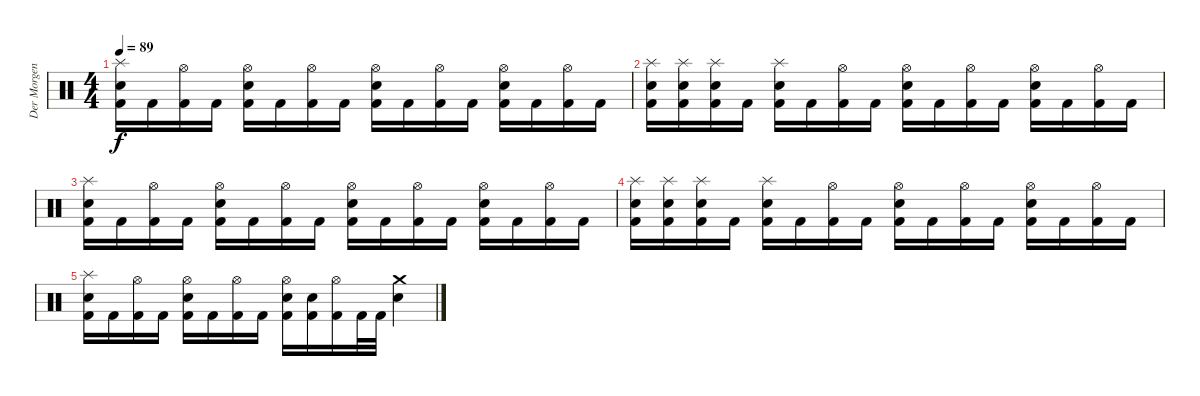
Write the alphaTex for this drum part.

\track ("Der Morgenstern" "Der Morgen") {instrument percussion}
\staff {score}
\articulation defaults
\ts (4 4)
\tempo 89
\clef neutral
\ks c
("Splash (hit)" "Electric Snare (hit)" "Kick (hit) 2").16{dy f} "Kick (hit) 2".16 ("Hi-Hat (open)" "Kick (hit) 2").16 "Kick (hit) 2".16 ("Hi-Hat (open)" "Electric Snare (hit)" "Kick (hit) 2").16 "Kick (hit) 2".16 ("Hi-Hat (open)" "Kick (hit) 2").16 "Kick (hit) 2".16 ("Hi-Hat (open)" "Electric Snare (hit)" "Kick (hit) 2").16 "Kick (hit) 2".16 ("Hi-Hat (open)" "Kick (hit) 2").16 "Kick (hit) 2".16 ("Hi-Hat (open)" "Electric Snare (hit)" "Kick (hit) 2").16 "Kick (hit) 2".16 ("Hi-Hat (open)" "Kick (hit) 2").16 "Kick (hit) 2".16 |
("Splash (hit)" "Electric Snare (hit)" "Kick (hit) 2").16 ("Splash (hit)" "Electric Snare (hit)" "Kick (hit) 2").16 ("Splash (hit)" "Electric Snare (hit)" "Kick (hit) 2").16 "Kick (hit) 2".16 ("Splash (hit)" "Electric Snare (hit)" "Kick (hit) 2").16 "Kick (hit) 2".16 ("Hi-Hat (open)" "Kick (hit) 2").16 "Kick (hit) 2".16 ("Hi-Hat (open)" "Electric Snare (hit)" "Kick (hit) 2").16 "Kick (hit) 2".16 ("Hi-Hat (open)" "Kick (hit) 2").16 "Kick (hit) 2".16 ("Hi-Hat (open)" "Electric Snare (hit)" "Kick (hit) 2").16 "Kick (hit) 2".16 ("Hi-Hat (open)" "Kick (hit) 2").16 "Kick (hit) 2".16 |
("Splash (hit)" "Electric Snare (hit)" "Kick (hit) 2").16 "Kick (hit) 2".16 ("Hi-Hat (open)" "Kick (hit) 2").16 "Kick (hit) 2".16 ("Hi-Hat (open)" "Electric Snare (hit)" "Kick (hit) 2").16 "Kick (hit) 2".16 ("Hi-Hat (open)" "Kick (hit) 2").16 "Kick (hit) 2".16 ("Hi-Hat (open)" "Electric Snare (hit)" "Kick (hit) 2").16 "Kick (hit) 2".16 ("Hi-Hat (open)" "Kick (hit) 2").16 "Kick (hit) 2".16 ("Hi-Hat (open)" "Electric Snare (hit)" "Kick (hit) 2").16 "Kick (hit) 2".16 ("Hi-Hat (open)" "Kick (hit) 2").16 "Kick (hit) 2".16 |
("Splash (hit)" "Electric Snare (hit)" "Kick (hit) 2").16 ("Splash (hit)" "Electric Snare (hit)" "Kick (hit) 2").16 ("Splash (hit)" "Electric Snare (hit)" "Kick (hit) 2").16 "Kick (hit) 2".16 ("Splash (hit)" "Electric Snare (hit)" "Kick (hit) 2").16 "Kick (hit) 2".16 ("Hi-Hat (open)" "Kick (hit) 2").16 "Kick (hit) 2".16 ("Hi-Hat (open)" "Electric Snare (hit)" "Kick (hit) 2").16 "Kick (hit) 2".16 ("Hi-Hat (open)" "Kick (hit) 2").16 "Kick (hit) 2".16 ("Hi-Hat (open)" "Electric Snare (hit)" "Kick (hit) 2").16 "Kick (hit) 2".16 ("Hi-Hat (open)" "Kick (hit) 2").16 "Kick (hit) 2".16 |
("Splash (hit)" "Electric Snare (hit)" "Kick (hit) 2").16 "Kick (hit) 2".16 ("Hi-Hat (open)" "Kick (hit) 2").16 "Kick (hit) 2".16 ("Hi-Hat (open)" "Electric Snare (hit)" "Kick (hit) 2").16 "Kick (hit) 2".16 ("Hi-Hat (open)" "Kick (hit) 2").16 "Kick (hit) 2".16 ("Hi-Hat (open)" "Electric Snare (hit)" "Kick (hit) 2").16 ("Electric Snare (hit)" "Kick (hit) 2").16 ("Hi-Hat (open)" "Kick (hit) 2").16 "Kick (hit) 2".32 "Kick (hit) 2".32 ("Crash medium (hit)" "Electric Snare (hit)").4
